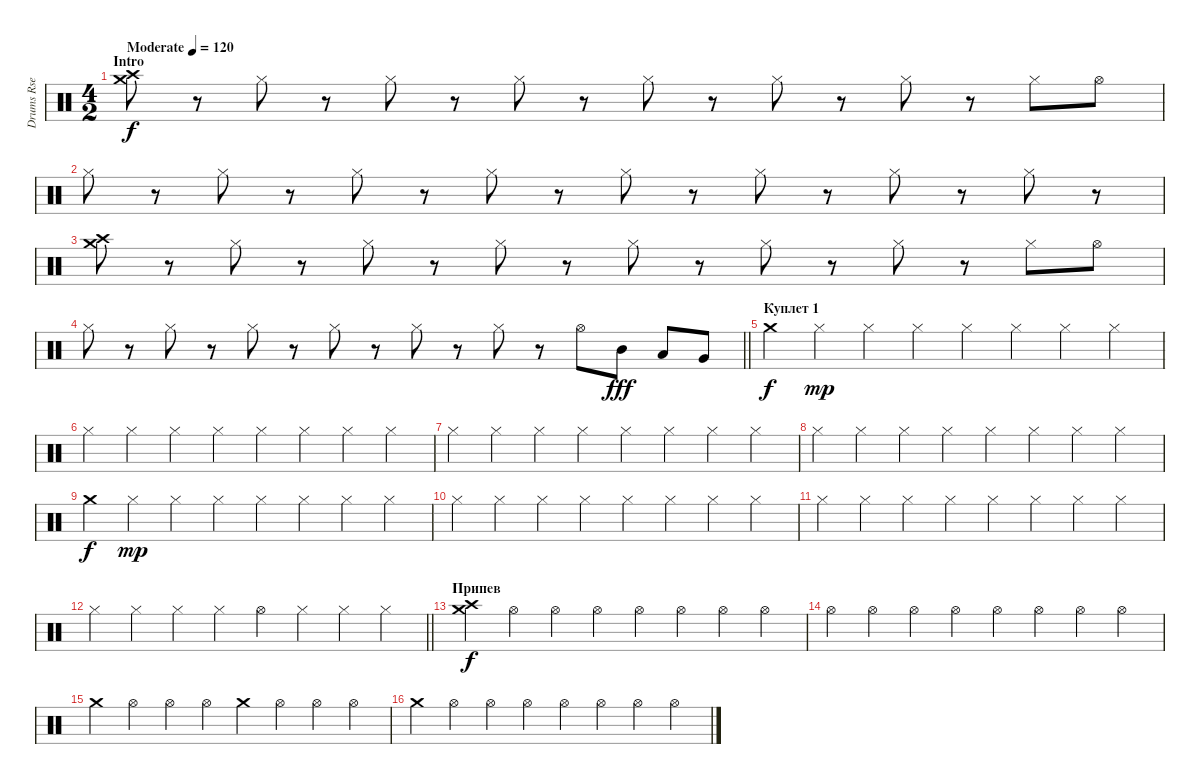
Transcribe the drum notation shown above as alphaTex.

\track ("Drums Rse" "Drums Rse") {instrument percussion}
\staff {score}
\articulation defaults
\ts (4 2)
\section ("" "Intro")
\tempo (120 "Moderate")
\clef neutral
\ks c
("Crash medium (hit)" "Crash high (hit)").8{dy f} r.8 "Hi-Hat (closed)".8 r.8 "Hi-Hat (closed)".8 r.8 "Hi-Hat (closed)".8 r.8 "Hi-Hat (closed)".8 r.8 "Hi-Hat (closed)".8 r.8 "Hi-Hat (closed)".8 r.8 "Hi-Hat (closed)".8 "Hi-Hat (open)".8 |
"Hi-Hat (closed)".8 r.8 "Hi-Hat (closed)".8 r.8 "Hi-Hat (closed)".8 r.8 "Hi-Hat (closed)".8 r.8 "Hi-Hat (closed)".8 r.8 "Hi-Hat (closed)".8 r.8 "Hi-Hat (closed)".8 r.8 "Hi-Hat (closed)".8 r.8 |
("Crash medium (hit)" "Crash high (hit)").8 r.8 "Hi-Hat (closed)".8 r.8 "Hi-Hat (closed)".8 r.8 "Hi-Hat (closed)".8 r.8 "Hi-Hat (closed)".8 r.8 "Hi-Hat (closed)".8 r.8 "Hi-Hat (closed)".8 r.8 "Hi-Hat (closed)".8 "Hi-Hat (open)".8 |
\barLineRight lightlight "Hi-Hat (closed)".8
r.8 "Hi-Hat (closed)".8 r.8 "Hi-Hat (closed)".8 r.8 "Hi-Hat (closed)".8 r.8 "Hi-Hat (closed)".8 r.8 "Hi-Hat (closed)".8 r.8 "Hi-Hat (open)".8 "Mid Tom (hit)".8{dy fff} "Low Tom (hit)".8 "Very Low Tom (hit)".8 |
\section ("" "Куплет 1")
"Crash medium (hit)".4{dy f} "Hi-Hat (closed)".4{dy mp} "Hi-Hat (closed)".4 "Hi-Hat (closed)".4 "Hi-Hat (closed)".4 "Hi-Hat (closed)".4 "Hi-Hat (closed)".4 "Hi-Hat (closed)".4 |
"Hi-Hat (closed)".4 "Hi-Hat (closed)".4 "Hi-Hat (closed)".4 "Hi-Hat (closed)".4 "Hi-Hat (closed)".4 "Hi-Hat (closed)".4 "Hi-Hat (closed)".4 "Hi-Hat (closed)".4 |
"Hi-Hat (closed)".4 "Hi-Hat (closed)".4 "Hi-Hat (closed)".4 "Hi-Hat (closed)".4 "Hi-Hat (closed)".4 "Hi-Hat (closed)".4 "Hi-Hat (closed)".4 "Hi-Hat (closed)".4 |
"Hi-Hat (closed)".4 "Hi-Hat (closed)".4 "Hi-Hat (closed)".4 "Hi-Hat (closed)".4 "Hi-Hat (closed)".4 "Hi-Hat (closed)".4 "Hi-Hat (closed)".4 "Hi-Hat (closed)".4 |
"Crash medium (hit)".4{dy f} "Hi-Hat (closed)".4{dy mp} "Hi-Hat (closed)".4 "Hi-Hat (closed)".4 "Hi-Hat (closed)".4 "Hi-Hat (closed)".4 "Hi-Hat (closed)".4 "Hi-Hat (closed)".4 |
"Hi-Hat (closed)".4 "Hi-Hat (closed)".4 "Hi-Hat (closed)".4 "Hi-Hat (closed)".4 "Hi-Hat (closed)".4 "Hi-Hat (closed)".4 "Hi-Hat (closed)".4 "Hi-Hat (closed)".4 |
"Hi-Hat (closed)".4 "Hi-Hat (closed)".4 "Hi-Hat (closed)".4 "Hi-Hat (closed)".4 "Hi-Hat (closed)".4 "Hi-Hat (closed)".4 "Hi-Hat (closed)".4 "Hi-Hat (closed)".4 |
\barLineRight lightlight "Hi-Hat (closed)".4 "Hi-Hat (closed)".4 "Hi-Hat (closed)".4 "Hi-Hat (closed)".4 "Hi-Hat (open)".4 "Hi-Hat (closed)".4 "Hi-Hat (closed)".4 "Hi-Hat (closed)".4
|
\section ("" "Припев")
("Crash medium (hit)" "Crash high (hit)").4{dy f} "Hi-Hat (open)".4 "Hi-Hat (open)".4 "Hi-Hat (open)".4 "Hi-Hat (open)".4 "Hi-Hat (open)".4 "Hi-Hat (open)".4 "Hi-Hat (open)".4 |
"Hi-Hat (open)".4 "Hi-Hat (open)".4 "Hi-Hat (open)".4 "Hi-Hat (open)".4 "Hi-Hat (open)".4 "Hi-Hat (open)".4 "Hi-Hat (open)".4 "Hi-Hat (open)".4 |
"Crash medium (hit)".4 "Hi-Hat (open)".4 "Hi-Hat (open)".4 "Hi-Hat (open)".4 "Crash medium (hit)".4 "Hi-Hat (open)".4 "Hi-Hat (open)".4 "Hi-Hat (open)".4 |
"Crash medium (hit)".4 "Hi-Hat (open)".4 "Hi-Hat (open)".4 "Hi-Hat (open)".4 "Hi-Hat (open)".4 "Hi-Hat (open)".4 "Hi-Hat (open)".4 "Hi-Hat (open)".4
